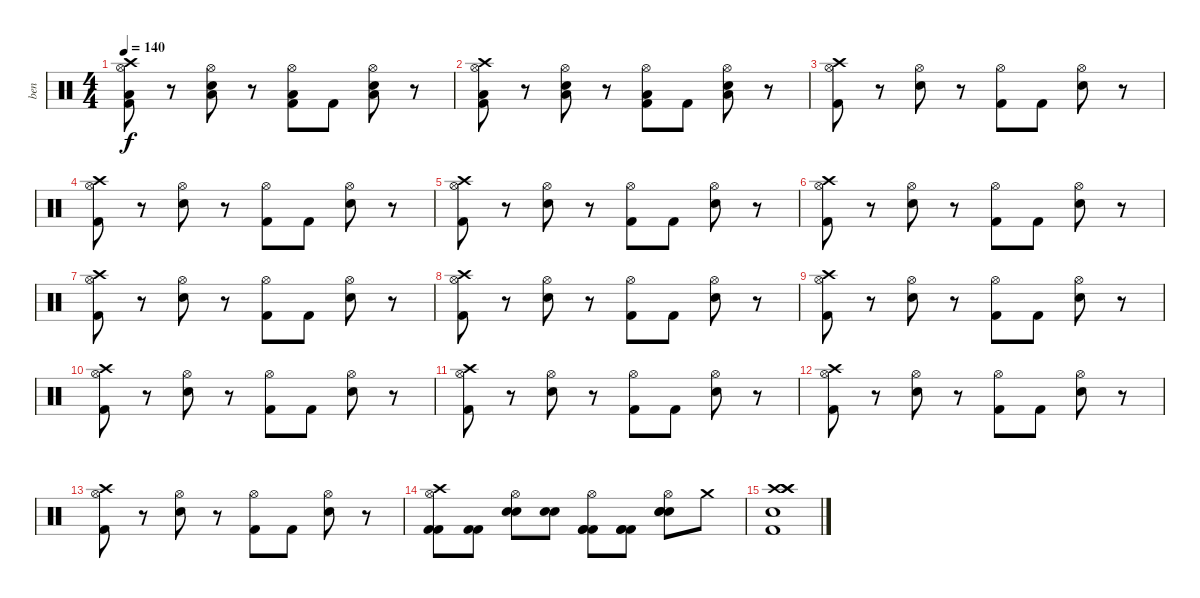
\track ("ben" "ben") {instrument percussion}
\staff {score}
\articulation defaults
\ts (4 4)
\tempo 140
\clef neutral
\ks c
("Hi-Hat (open)" "Kick (hit) 2" "Crash high (hit)" "Low Floor Tom (hit)").8{dy f} r.8 ("Hi-Hat (open)" "Electric Snare (hit)" "Low Floor Tom (hit)").8 r.8 ("Hi-Hat (open)" "Kick (hit) 2" "Low Floor Tom (hit)").8 "Kick (hit) 2".8 ("Hi-Hat (open)" "Electric Snare (hit)" "Low Floor Tom (hit)").8 r.8 |
("Hi-Hat (open)" "Kick (hit) 2" "Crash high (hit)" "Low Floor Tom (hit)").8 r.8 ("Hi-Hat (open)" "Electric Snare (hit)" "Low Floor Tom (hit)").8 r.8 ("Hi-Hat (open)" "Kick (hit) 2" "Low Floor Tom (hit)").8 "Kick (hit) 2".8 ("Hi-Hat (open)" "Electric Snare (hit)" "Low Floor Tom (hit)").8 r.8 |
("Hi-Hat (open)" "Kick (hit) 2" "Crash high (hit)").8 r.8 ("Hi-Hat (open)" "Electric Snare (hit)").8 r.8 ("Hi-Hat (open)" "Kick (hit) 2").8 "Kick (hit) 2".8 ("Hi-Hat (open)" "Electric Snare (hit)").8 r.8 |
("Hi-Hat (open)" "Kick (hit) 2" "Crash high (hit)").8 r.8 ("Hi-Hat (open)" "Electric Snare (hit)").8 r.8 ("Hi-Hat (open)" "Kick (hit) 2").8 "Kick (hit) 2".8 ("Hi-Hat (open)" "Electric Snare (hit)").8 r.8 |
("Hi-Hat (open)" "Kick (hit) 2" "Crash high (hit)").8 r.8 ("Hi-Hat (open)" "Electric Snare (hit)").8 r.8 ("Hi-Hat (open)" "Kick (hit) 2").8 "Kick (hit) 2".8 ("Hi-Hat (open)" "Electric Snare (hit)").8 r.8 |
("Hi-Hat (open)" "Kick (hit) 2" "Crash high (hit)").8 r.8 ("Hi-Hat (open)" "Electric Snare (hit)").8 r.8 ("Hi-Hat (open)" "Kick (hit) 2").8 "Kick (hit) 2".8 ("Hi-Hat (open)" "Electric Snare (hit)").8 r.8 |
("Hi-Hat (open)" "Kick (hit) 2" "Crash high (hit)").8 r.8 ("Hi-Hat (open)" "Electric Snare (hit)").8 r.8 ("Hi-Hat (open)" "Kick (hit) 2").8 "Kick (hit) 2".8 ("Hi-Hat (open)" "Electric Snare (hit)").8 r.8 |
("Hi-Hat (open)" "Kick (hit) 2" "Crash high (hit)").8 r.8 ("Hi-Hat (open)" "Electric Snare (hit)").8 r.8 ("Hi-Hat (open)" "Kick (hit) 2").8 "Kick (hit) 2".8 ("Hi-Hat (open)" "Electric Snare (hit)").8 r.8 |
("Hi-Hat (open)" "Kick (hit) 2" "Crash high (hit)").8 r.8 ("Hi-Hat (open)" "Electric Snare (hit)").8 r.8 ("Hi-Hat (open)" "Kick (hit) 2").8 "Kick (hit) 2".8 ("Hi-Hat (open)" "Electric Snare (hit)").8 r.8 |
("Hi-Hat (open)" "Kick (hit) 2" "Crash high (hit)").8 r.8 ("Hi-Hat (open)" "Electric Snare (hit)").8 r.8 ("Hi-Hat (open)" "Kick (hit) 2").8 "Kick (hit) 2".8 ("Hi-Hat (open)" "Electric Snare (hit)").8 r.8 |
("Hi-Hat (open)" "Kick (hit) 2" "Crash high (hit)").8 r.8 ("Hi-Hat (open)" "Electric Snare (hit)").8 r.8 ("Hi-Hat (open)" "Kick (hit) 2").8 "Kick (hit) 2".8 ("Hi-Hat (open)" "Electric Snare (hit)").8 r.8 |
("Hi-Hat (open)" "Kick (hit) 2" "Crash high (hit)").8 r.8 ("Hi-Hat (open)" "Electric Snare (hit)").8 r.8 ("Hi-Hat (open)" "Kick (hit) 2").8 "Kick (hit) 2".8 ("Hi-Hat (open)" "Electric Snare (hit)").8 r.8 |
("Hi-Hat (open)" "Kick (hit) 2" "Crash high (hit)").8 r.8 ("Hi-Hat (open)" "Electric Snare (hit)").8 r.8 ("Hi-Hat (open)" "Kick (hit) 2").8 "Kick (hit) 2".8 ("Hi-Hat (open)" "Electric Snare (hit)").8 r.8 |
("Hi-Hat (open)" "Kick (hit) 2" "Kick (hit) 2" "Crash high (hit)").8 ("Kick (hit) 2" "Kick (hit) 2").8 ("Hi-Hat (open)" "Electric Snare (hit)" "Electric Snare (hit)").8 ("Electric Snare (hit)" "Electric Snare (hit)").8 ("Hi-Hat (open)" "Kick (hit) 2" "Kick (hit) 2" "Kick (hit) 2").8 ("Kick (hit) 2" "Kick (hit) 2" "Kick (hit) 2").8 ("Hi-Hat (open)" "Electric Snare (hit)" "Electric Snare (hit)" "Electric Snare (hit)").8 "Crash medium (hit)".8 |
("Crash high (hit)" "Crash high (hit)" "Crash high (hit)" "Kick (hit) 2" "Electric Snare (hit)").1
